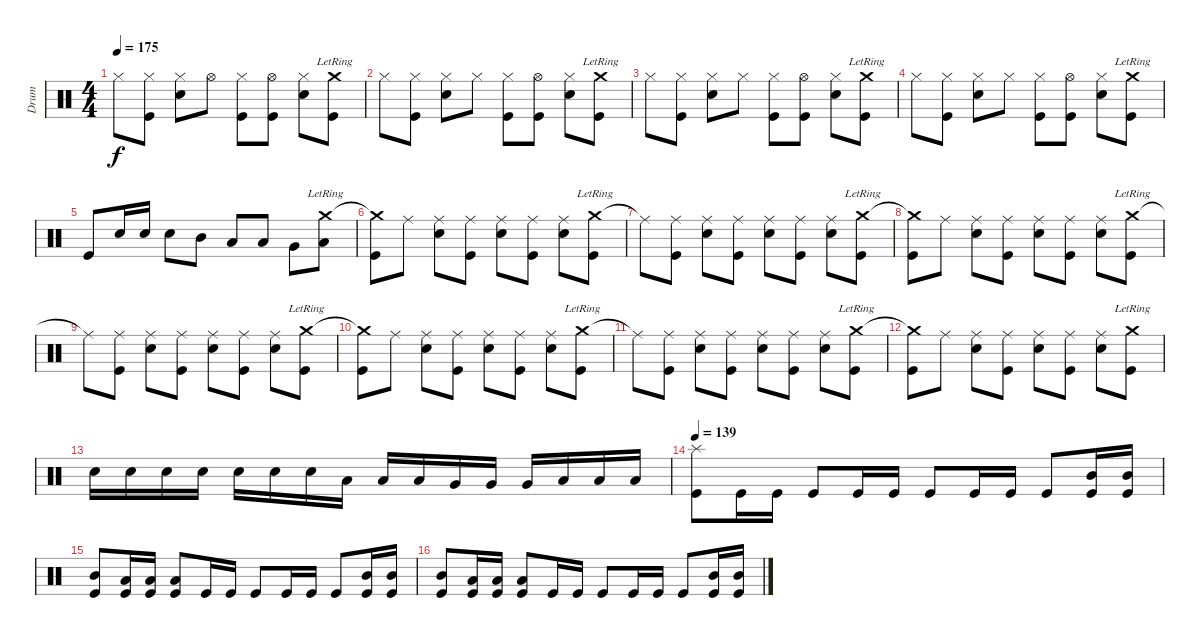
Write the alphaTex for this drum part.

\track ("Drum" "Drum") {instrument percussion}
\staff {score}
\articulation defaults
\ts (4 4)
\tempo 175
\clef neutral
\ks c "Hi-Hat (closed)".8{dy f}
("Hi-Hat (closed)" "Kick (hit)").8 ("Hi-Hat (closed)" "Snare (hit) 2").8 "Hi-Hat (open)".8 ("Hi-Hat (closed)" "Kick (hit)").8 ("Hi-Hat (open)" "Kick (hit)").8 ("Hi-Hat (closed)" "Snare (hit) 2").8 ("Crash medium (hit)"{lr} "Kick (hit)").8 |
"Hi-Hat (closed)".8 ("Hi-Hat (closed)" "Kick (hit)").8 ("Hi-Hat (closed)" "Snare (hit) 2").8 "Hi-Hat (closed)".8 ("Hi-Hat (closed)" "Kick (hit)").8 ("Hi-Hat (open)" "Kick (hit)").8 ("Hi-Hat (closed)" "Snare (hit) 2").8 ("Crash medium (hit)"{lr} "Kick (hit)").8 |
"Hi-Hat (closed)".8 ("Hi-Hat (closed)" "Kick (hit)").8 ("Hi-Hat (closed)" "Snare (hit) 2").8 "Hi-Hat (closed)".8 ("Hi-Hat (closed)" "Kick (hit)").8 ("Hi-Hat (open)" "Kick (hit)").8 ("Hi-Hat (closed)" "Snare (hit) 2").8 ("Crash medium (hit)"{lr} "Kick (hit)").8 |
"Hi-Hat (closed)".8 ("Hi-Hat (closed)" "Kick (hit)").8 ("Hi-Hat (closed)" "Snare (hit) 2").8 "Hi-Hat (closed)".8 ("Hi-Hat (closed)" "Kick (hit)").8 ("Hi-Hat (open)" "Kick (hit)").8 ("Hi-Hat (closed)" "Snare (hit) 2").8 ("Crash medium (hit)"{lr} "Kick (hit)").8 |
"Kick (hit)".8 "Snare (hit) 2".16 "Snare (hit) 2".16 "Snare (hit) 2".8 "Mid Tom (hit)".8 "Low Tom (hit)".8 "Low Tom (hit)".8 "Very Low Tom (hit)".8 ("Crash medium (hit)"{lr} "Low Floor Tom (hit)").8 |
("Crash medium (hit)"{t} "Kick (hit)").8 "Ride (middle)".8 ("Ride (middle)" "Snare (hit) 2").8 ("Ride (middle)" "Kick (hit)").8 ("Ride (middle)" "Snare (hit) 2").8 ("Ride (middle)" "Kick (hit)").8 ("Ride (middle)" "Snare (hit) 2").8 ("Crash medium (hit)"{lr} "Kick (hit)").8 |
"Ride (middle)"{t}.8 ("Ride (middle)" "Kick (hit)").8 ("Ride (middle)" "Snare (hit) 2").8 ("Ride (middle)" "Kick (hit)").8 ("Ride (middle)" "Snare (hit) 2").8 ("Ride (middle)" "Kick (hit)").8 ("Ride (middle)" "Snare (hit) 2").8 ("Crash medium (hit)"{lr} "Kick (hit)").8 |
("Crash medium (hit)"{t} "Kick (hit)").8 "Ride (middle)".8 ("Ride (middle)" "Snare (hit) 2").8 ("Ride (middle)" "Kick (hit)").8 ("Ride (middle)" "Snare (hit) 2").8 ("Ride (middle)" "Kick (hit)").8 ("Ride (middle)" "Snare (hit) 2").8 ("Crash medium (hit)"{lr} "Kick (hit)").8 |
"Ride (middle)"{t}.8 ("Ride (middle)" "Kick (hit)").8 ("Ride (middle)" "Snare (hit) 2").8 ("Ride (middle)" "Kick (hit)").8 ("Ride (middle)" "Snare (hit) 2").8 ("Ride (middle)" "Kick (hit)").8 ("Ride (middle)" "Snare (hit) 2").8 ("Crash medium (hit)"{lr} "Kick (hit)").8 |
("Crash medium (hit)"{t} "Kick (hit)").8 "Ride (middle)".8 ("Ride (middle)" "Snare (hit) 2").8 ("Ride (middle)" "Kick (hit)").8 ("Ride (middle)" "Snare (hit) 2").8 ("Ride (middle)" "Kick (hit)").8 ("Ride (middle)" "Snare (hit) 2").8 ("Crash medium (hit)"{lr} "Kick (hit)").8 |
"Ride (middle)"{t}.8 ("Ride (middle)" "Kick (hit)").8 ("Ride (middle)" "Snare (hit) 2").8 ("Ride (middle)" "Kick (hit)").8 ("Ride (middle)" "Snare (hit) 2").8 ("Ride (middle)" "Kick (hit)").8 ("Ride (middle)" "Snare (hit) 2").8 ("Crash medium (hit)"{lr} "Kick (hit)").8 |
("Crash medium (hit)"{t} "Kick (hit)").8 "Ride (middle)".8 ("Ride (middle)" "Snare (hit) 2").8 ("Ride (middle)" "Kick (hit)").8 ("Ride (middle)" "Snare (hit) 2").8 ("Ride (middle)" "Kick (hit)").8 ("Ride (middle)" "Snare (hit) 2").8 ("Crash medium (hit)"{lr} "Kick (hit)").8 |
"Snare (hit) 2".16 "Snare (hit) 2".16 "Snare (hit) 2".16 "Snare (hit) 2".16 "Snare (hit) 2".16 "Snare (hit) 2".16 "Snare (hit) 2".16 "Low Tom (hit)".16 "Low Tom (hit)".16 "Low Tom (hit)".16 "Very Low Tom (hit)".16 "Very Low Tom (hit)".16 "Very Low Tom (hit)".16 "Low Floor Tom (hit)".16 "Low Floor Tom (hit)".16 "Low Floor Tom (hit)".16 |
\tempo 139
("Splash (hit)" "Kick (hit)").8 "Kick (hit)".16 "Kick (hit)".16 "Kick (hit)".8 "Kick (hit)".16 "Kick (hit)".16 "Kick (hit)".8 "Kick (hit)".16 "Kick (hit)".16 "Kick (hit)".8 ("Mid Tom (hit)" "Kick (hit)").16 ("Mid Tom (hit)" "Kick (hit)").16 |
("Mid Tom (hit)" "Kick (hit)").8 ("Low Floor Tom (hit)" "Kick (hit)").16 ("Low Floor Tom (hit)" "Kick (hit)").16 ("Low Floor Tom (hit)" "Kick (hit)").8 "Kick (hit)".16 "Kick (hit)".16 "Kick (hit)".8 "Kick (hit)".16 "Kick (hit)".16 "Kick (hit)".8 ("Mid Tom (hit)" "Kick (hit)").16 ("Mid Tom (hit)" "Kick (hit)").16 |
("Mid Tom (hit)" "Kick (hit)").8 ("Low Floor Tom (hit)" "Kick (hit)").16 ("Low Floor Tom (hit)" "Kick (hit)").16 ("Low Floor Tom (hit)" "Kick (hit)").8 "Kick (hit)".16 "Kick (hit)".16 "Kick (hit)".8 "Kick (hit)".16 "Kick (hit)".16 "Kick (hit)".8 ("Mid Tom (hit)" "Kick (hit)").16 ("Mid Tom (hit)" "Kick (hit)").16
